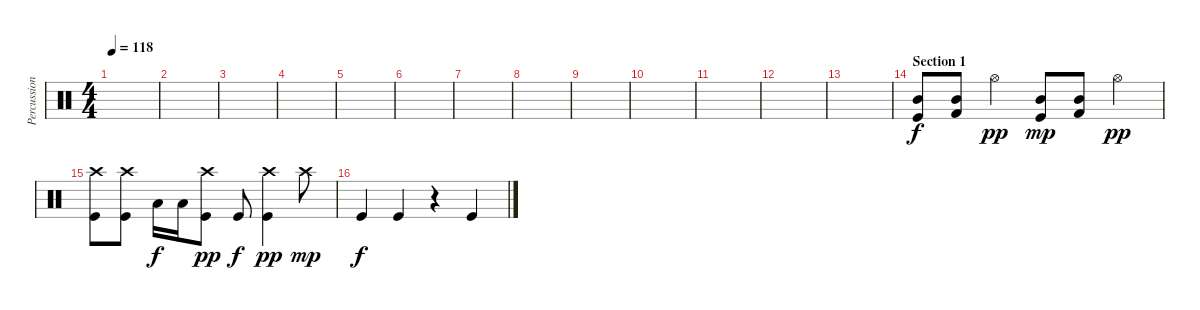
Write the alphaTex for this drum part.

\track ("Percussion" "Percussion") {instrument percussion}
\staff {score}
\articulation defaults
\ts (4 4)
\tempo 118
\clef neutral
\ks c
|
|
|
|
|
|
|
|
|
|
|
|
|
\section ("" "Section 1")
("Mid Tom (hit)" "Kick (hit)").8 ("Mid Tom (hit)" "Kick (hit) 2").8 "Hi-Hat (open)".4{dy pp} ("Mid Tom (hit)" "Kick (hit)").8{dy mp} ("Mid Tom (hit)" "Kick (hit) 2").8 "Hi-Hat (open)".4{dy pp} |
("Kick (hit)" "Crash high (hit)").8 ("Kick (hit)" "Crash high (hit)").8 "Low Tom (hit)".16{dy f} "Low Tom (hit)".16 ("Kick (hit)" "Crash high (hit)").8{dy pp} "Kick (hit)".8{dy f} ("Kick (hit)" "Crash high (hit)").4{dy pp} "Crash high (hit)".8{dy mp} |
"Kick (hit)".4{dy f} "Kick (hit)".4 r.4 "Kick (hit)".4
